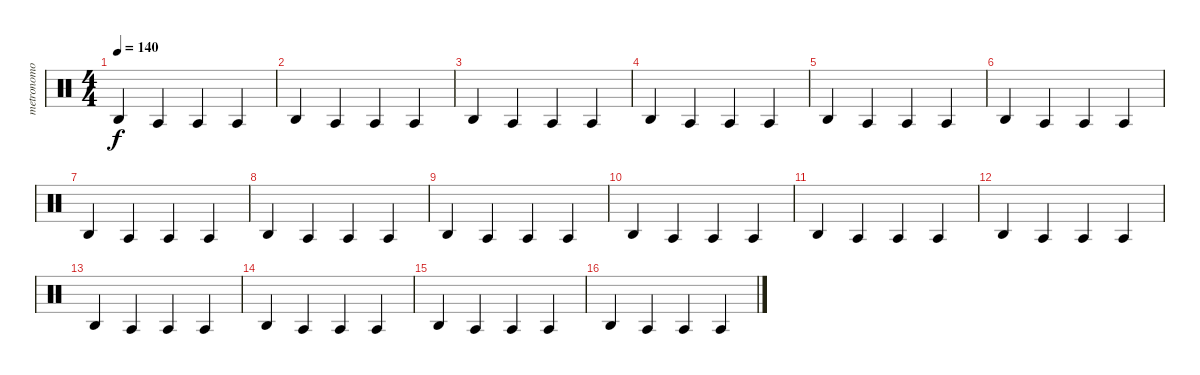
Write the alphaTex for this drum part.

\track ("metronomo" "metronomo") {instrument percussion}
\staff {score}
\articulation defaults
\ts (4 4)
\tempo 140
\clef neutral
\ks c "Agogo high (hit)".4{dy f} "Agogo tow (hit)".4 "Agogo tow (hit)".4 "Agogo tow (hit)".4
|
"Agogo high (hit)".4 "Agogo tow (hit)".4 "Agogo tow (hit)".4 "Agogo tow (hit)".4 |
"Agogo high (hit)".4 "Agogo tow (hit)".4 "Agogo tow (hit)".4 "Agogo tow (hit)".4 |
"Agogo high (hit)".4 "Agogo tow (hit)".4 "Agogo tow (hit)".4 "Agogo tow (hit)".4 |
"Agogo high (hit)".4 "Agogo tow (hit)".4 "Agogo tow (hit)".4 "Agogo tow (hit)".4 |
"Agogo high (hit)".4 "Agogo tow (hit)".4 "Agogo tow (hit)".4 "Agogo tow (hit)".4 |
"Agogo high (hit)".4 "Agogo tow (hit)".4 "Agogo tow (hit)".4 "Agogo tow (hit)".4 |
"Agogo high (hit)".4 "Agogo tow (hit)".4 "Agogo tow (hit)".4 "Agogo tow (hit)".4 |
"Agogo high (hit)".4 "Agogo tow (hit)".4 "Agogo tow (hit)".4 "Agogo tow (hit)".4 |
"Agogo high (hit)".4 "Agogo tow (hit)".4 "Agogo tow (hit)".4 "Agogo tow (hit)".4 |
"Agogo high (hit)".4 "Agogo tow (hit)".4 "Agogo tow (hit)".4 "Agogo tow (hit)".4 |
"Agogo high (hit)".4 "Agogo tow (hit)".4 "Agogo tow (hit)".4 "Agogo tow (hit)".4 |
"Agogo high (hit)".4 "Agogo tow (hit)".4 "Agogo tow (hit)".4 "Agogo tow (hit)".4 |
"Agogo high (hit)".4 "Agogo tow (hit)".4 "Agogo tow (hit)".4 "Agogo tow (hit)".4 |
"Agogo high (hit)".4 "Agogo tow (hit)".4 "Agogo tow (hit)".4 "Agogo tow (hit)".4 |
"Agogo high (hit)".4 "Agogo tow (hit)".4 "Agogo tow (hit)".4 "Agogo tow (hit)".4
